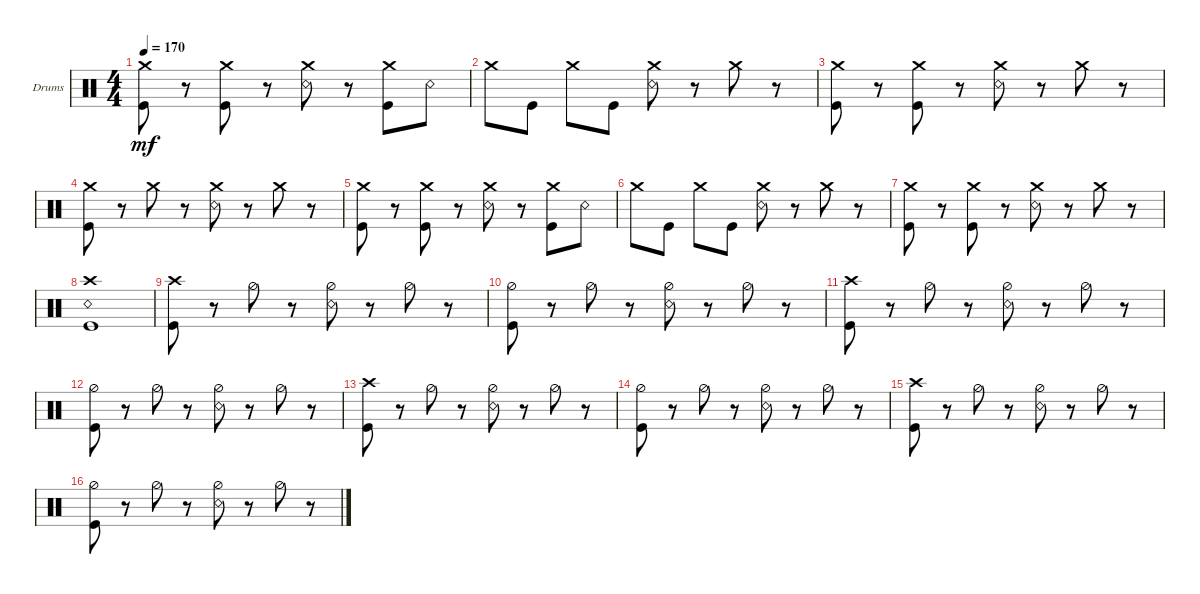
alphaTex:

\defaultSystemsLayout 4
\bracketExtendMode groupsimilarinstruments
\firstSystemTrackNameOrientation horizontal
\otherSystemsTrackNameOrientation horizontal
\track ("Drumkit" "Drums") {instrument percussion}
\staff {score}
\articulation defaults
\ts (4 4)
\tempo 170
\clef neutral
\ks c
("Kick (hit)" "Crash medium (hit)").8{dy mf} r.8 ("Crash medium (hit)" "Kick (hit)").8 r.8 ("Snare (rim shot)" "Crash medium (hit)").8 r.8 ("Crash medium (hit)" "Kick (hit)").8 "Snare (rim shot)".8 |
"Crash medium (hit)".8 "Kick (hit)".8 "Crash medium (hit)".8 "Kick (hit)".8 ("Snare (rim shot)" "Crash medium (hit)").8 r.8 "Crash medium (hit)".8 r.8 |
("Kick (hit)" "Crash medium (hit)").8 r.8 ("Crash medium (hit)" "Kick (hit)").8 r.8 ("Snare (rim shot)" "Crash medium (hit)").8 r.8 "Crash medium (hit)".8 r.8 |
("Kick (hit)" "Crash medium (hit)").8 r.8 "Crash medium (hit)".8 r.8 ("Snare (rim shot)" "Crash medium (hit)").8 r.8 "Crash medium (hit)".8 r.8 |
("Kick (hit)" "Crash medium (hit)").8 r.8 ("Crash medium (hit)" "Kick (hit)").8 r.8 ("Snare (rim shot)" "Crash medium (hit)").8 r.8 ("Crash medium (hit)" "Kick (hit)").8 "Snare (rim shot)".8 |
"Crash medium (hit)".8 "Kick (hit)".8 "Crash medium (hit)".8 "Kick (hit)".8 ("Snare (rim shot)" "Crash medium (hit)").8 r.8 "Crash medium (hit)".8 r.8 |
("Kick (hit)" "Crash medium (hit)").8 r.8 ("Crash medium (hit)" "Kick (hit)").8 r.8 ("Snare (rim shot)" "Crash medium (hit)").8 r.8 "Crash medium (hit)".8 r.8 |
("Kick (hit)" "Crash high (hit)" "Snare (rim shot)").1 |
("Kick (hit)" "Crash high (hit)").8 r.8 "Hi-Hat (half)".8 r.8 ("Snare (rim shot)" "Hi-Hat (half)").8 r.8 "Hi-Hat (half)".8 r.8 |
("Kick (hit)" "Hi-Hat (half)").8 r.8 "Hi-Hat (half)".8 r.8 ("Snare (rim shot)" "Hi-Hat (half)").8 r.8 "Hi-Hat (half)".8 r.8 |
("Kick (hit)" "Crash high (hit)").8 r.8 "Hi-Hat (half)".8 r.8 ("Snare (rim shot)" "Hi-Hat (half)").8 r.8 "Hi-Hat (half)".8 r.8 |
("Kick (hit)" "Hi-Hat (half)").8 r.8 "Hi-Hat (half)".8 r.8 ("Snare (rim shot)" "Hi-Hat (half)").8 r.8 "Hi-Hat (half)".8 r.8 |
("Kick (hit)" "Crash high (hit)").8 r.8 "Hi-Hat (half)".8 r.8 ("Snare (rim shot)" "Hi-Hat (half)").8 r.8 "Hi-Hat (half)".8 r.8 |
("Kick (hit)" "Hi-Hat (half)").8 r.8 "Hi-Hat (half)".8 r.8 ("Snare (rim shot)" "Hi-Hat (half)").8 r.8 "Hi-Hat (half)".8 r.8 |
("Kick (hit)" "Crash high (hit)").8 r.8 "Hi-Hat (half)".8 r.8 ("Snare (rim shot)" "Hi-Hat (half)").8 r.8 "Hi-Hat (half)".8 r.8 |
("Kick (hit)" "Hi-Hat (half)").8 r.8 "Hi-Hat (half)".8 r.8 ("Snare (rim shot)" "Hi-Hat (half)").8 r.8 "Hi-Hat (half)".8 r.8
